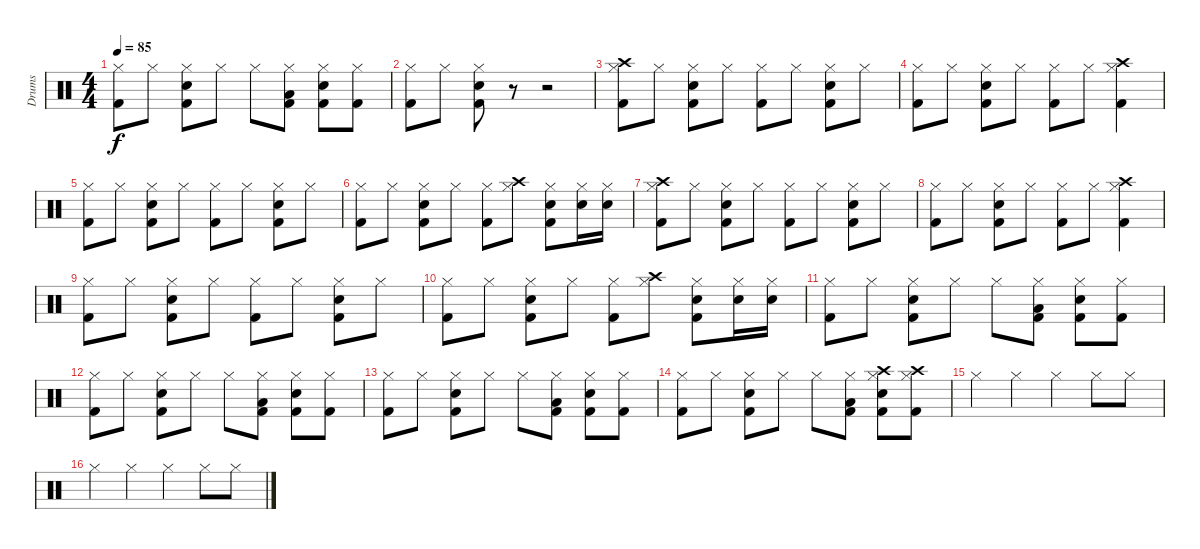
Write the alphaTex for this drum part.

\track ("Drums" "Drums") {instrument percussion}
\staff {score}
\articulation defaults
\ts (4 4)
\tempo 85
\clef neutral
\ks c
("Hi-Hat (closed)" "Kick (hit) 2").8{dy f} "Hi-Hat (closed)".8 ("Hi-Hat (closed)" "Electric Snare (hit)" "Kick (hit) 2").8 "Hi-Hat (closed)".8 "Hi-Hat (closed)".8 ("Hi-Hat (closed)" "Low Tom (hit)" "Kick (hit) 2").8 ("Hi-Hat (closed)" "Electric Snare (hit)" "Kick (hit) 2").8 ("Hi-Hat (closed)" "Kick (hit) 2").8 |
("Hi-Hat (closed)" "Kick (hit) 2").8 "Hi-Hat (closed)".8 ("Hi-Hat (closed)" "Electric Snare (hit)" "Kick (hit) 2").8 r.8 r.2 |
("Crash high (hit)" "Hi-Hat (closed)" "Kick (hit) 2").8 "Hi-Hat (closed)".8 ("Hi-Hat (closed)" "Electric Snare (hit)" "Kick (hit) 2").8 "Hi-Hat (closed)".8 ("Hi-Hat (closed)" "Kick (hit) 2").8 "Hi-Hat (closed)".8 ("Hi-Hat (closed)" "Electric Snare (hit)" "Kick (hit) 2").8 "Hi-Hat (closed)".8 |
("Hi-Hat (closed)" "Kick (hit) 2").8 "Hi-Hat (closed)".8 ("Hi-Hat (closed)" "Electric Snare (hit)" "Kick (hit) 2").8 "Hi-Hat (closed)".8 ("Hi-Hat (closed)" "Kick (hit) 2").8 "Hi-Hat (closed)".8 ("Crash high (hit)" "Hi-Hat (closed)" "Kick (hit) 2").4 |
("Hi-Hat (closed)" "Kick (hit) 2").8 "Hi-Hat (closed)".8 ("Hi-Hat (closed)" "Electric Snare (hit)" "Kick (hit) 2").8 "Hi-Hat (closed)".8 ("Hi-Hat (closed)" "Kick (hit) 2").8 "Hi-Hat (closed)".8 ("Hi-Hat (closed)" "Electric Snare (hit)" "Kick (hit) 2").8 "Hi-Hat (closed)".8 |
("Hi-Hat (closed)" "Kick (hit) 2").8 "Hi-Hat (closed)".8 ("Hi-Hat (closed)" "Electric Snare (hit)" "Kick (hit) 2").8 "Hi-Hat (closed)".8 ("Hi-Hat (closed)" "Kick (hit) 2").8 ("Crash high (hit)" "Hi-Hat (closed)").8 ("Hi-Hat (closed)" "Electric Snare (hit)" "Kick (hit) 2").8 ("Hi-Hat (closed)" "Electric Snare (hit)").16 ("Hi-Hat (closed)" "Electric Snare (hit)").16 |
("Crash high (hit)" "Hi-Hat (closed)" "Kick (hit) 2").8 "Hi-Hat (closed)".8 ("Hi-Hat (closed)" "Electric Snare (hit)" "Kick (hit) 2").8 "Hi-Hat (closed)".8 ("Hi-Hat (closed)" "Kick (hit) 2").8 "Hi-Hat (closed)".8 ("Hi-Hat (closed)" "Electric Snare (hit)" "Kick (hit) 2").8 "Hi-Hat (closed)".8 |
("Hi-Hat (closed)" "Kick (hit) 2").8 "Hi-Hat (closed)".8 ("Hi-Hat (closed)" "Electric Snare (hit)" "Kick (hit) 2").8 "Hi-Hat (closed)".8 ("Hi-Hat (closed)" "Kick (hit) 2").8 "Hi-Hat (closed)".8 ("Crash high (hit)" "Hi-Hat (closed)" "Kick (hit) 2").4 |
("Hi-Hat (closed)" "Kick (hit) 2").8 "Hi-Hat (closed)".8 ("Hi-Hat (closed)" "Electric Snare (hit)" "Kick (hit) 2").8 "Hi-Hat (closed)".8 ("Hi-Hat (closed)" "Kick (hit) 2").8 "Hi-Hat (closed)".8 ("Hi-Hat (closed)" "Electric Snare (hit)" "Kick (hit) 2").8 "Hi-Hat (closed)".8 |
("Hi-Hat (closed)" "Kick (hit) 2").8 "Hi-Hat (closed)".8 ("Hi-Hat (closed)" "Electric Snare (hit)" "Kick (hit) 2").8 "Hi-Hat (closed)".8 ("Hi-Hat (closed)" "Kick (hit) 2").8 ("Crash high (hit)" "Hi-Hat (closed)").8 ("Hi-Hat (closed)" "Electric Snare (hit)" "Kick (hit) 2").8 ("Hi-Hat (closed)" "Electric Snare (hit)").16 ("Hi-Hat (closed)" "Electric Snare (hit)").16 |
("Hi-Hat (closed)" "Kick (hit) 2").8 "Hi-Hat (closed)".8 ("Hi-Hat (closed)" "Electric Snare (hit)" "Kick (hit) 2").8 "Hi-Hat (closed)".8 "Hi-Hat (closed)".8 ("Hi-Hat (closed)" "Low Tom (hit)" "Kick (hit) 2").8 ("Hi-Hat (closed)" "Electric Snare (hit)" "Kick (hit) 2").8 ("Hi-Hat (closed)" "Kick (hit) 2").8 |
("Hi-Hat (closed)" "Kick (hit) 2").8 "Hi-Hat (closed)".8 ("Hi-Hat (closed)" "Electric Snare (hit)" "Kick (hit) 2").8 "Hi-Hat (closed)".8 "Hi-Hat (closed)".8 ("Hi-Hat (closed)" "Low Tom (hit)" "Kick (hit) 2").8 ("Hi-Hat (closed)" "Electric Snare (hit)" "Kick (hit) 2").8 ("Hi-Hat (closed)" "Kick (hit) 2").8 |
("Hi-Hat (closed)" "Kick (hit) 2").8 "Hi-Hat (closed)".8 ("Hi-Hat (closed)" "Electric Snare (hit)" "Kick (hit) 2").8 "Hi-Hat (closed)".8 "Hi-Hat (closed)".8 ("Hi-Hat (closed)" "Low Tom (hit)" "Kick (hit) 2").8 ("Hi-Hat (closed)" "Electric Snare (hit)" "Kick (hit) 2").8 ("Hi-Hat (closed)" "Kick (hit) 2").8 |
("Hi-Hat (closed)" "Kick (hit) 2").8 "Hi-Hat (closed)".8 ("Hi-Hat (closed)" "Electric Snare (hit)" "Kick (hit) 2").8 "Hi-Hat (closed)".8 "Hi-Hat (closed)".8 ("Hi-Hat (closed)" "Low Tom (hit)" "Kick (hit) 2").8 ("Crash high (hit)" "Hi-Hat (closed)" "Electric Snare (hit)" "Kick (hit) 2").8 ("Crash high (hit)" "Hi-Hat (closed)" "Kick (hit) 2").8 |
"Hi-Hat (closed)".4 "Hi-Hat (closed)".4 "Hi-Hat (closed)".4 "Hi-Hat (closed)".8 "Hi-Hat (closed)".8 |
"Hi-Hat (closed)".4 "Hi-Hat (closed)".4 "Hi-Hat (closed)".4 "Hi-Hat (closed)".8 "Hi-Hat (closed)".8
